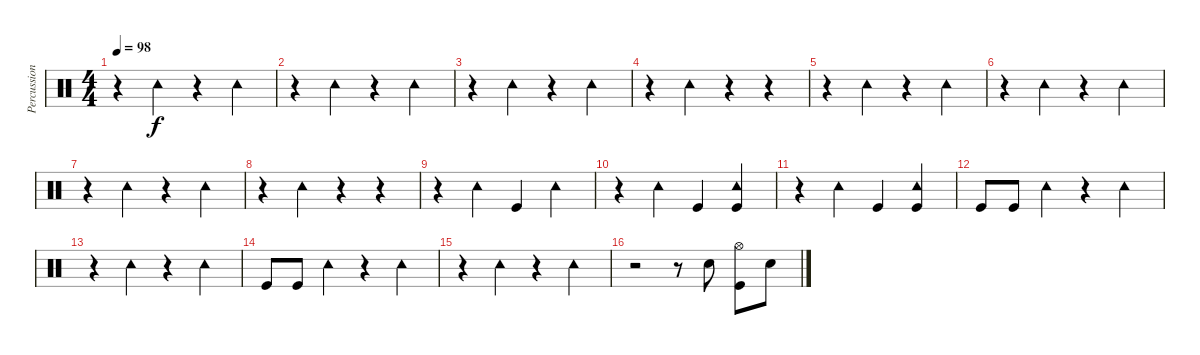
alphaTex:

\track ("Percussions" "Percussion") {instrument percussion}
\staff {score}
\articulation defaults
\ts (4 4)
\tempo 98
\clef neutral
\ks c
r.4{dy f} "Tambourine (hit)".4 r.4 "Tambourine (hit)".4 |
r.4 "Tambourine (hit)".4 r.4 "Tambourine (hit)".4 |
r.4 "Tambourine (hit)".4 r.4 "Tambourine (hit)".4 |
r.4 "Tambourine (hit)".4 r.4 r.4 |
r.4 "Tambourine (hit)".4 r.4 "Tambourine (hit)".4 |
r.4 "Tambourine (hit)".4 r.4 "Tambourine (hit)".4 |
r.4 "Tambourine (hit)".4 r.4 "Tambourine (hit)".4 |
r.4 "Tambourine (hit)".4 r.4 r.4 |
r.4 "Tambourine (hit)".4 "Kick (hit)".4 "Tambourine (hit)".4 |
r.4 "Tambourine (hit)".4 "Kick (hit)".4 ("Tambourine (hit)" "Kick (hit)").4 |
r.4 "Tambourine (hit)".4 "Kick (hit)".4 ("Tambourine (hit)" "Kick (hit)").4 |
"Kick (hit)".8 "Kick (hit)".8 "Tambourine (hit)".4 r.4 "Tambourine (hit)".4 |
r.4 "Tambourine (hit)".4 r.4 "Tambourine (hit)".4 |
"Kick (hit)".8 "Kick (hit)".8 "Tambourine (hit)".4 r.4 "Tambourine (hit)".4 |
r.4 "Tambourine (hit)".4 r.4 "Tambourine (hit)".4 |
r.2 r.8 "Snare (hit) 2".8 ("Kick (hit)" "Hi-Hat (open)").8 "Snare (hit) 2".8
